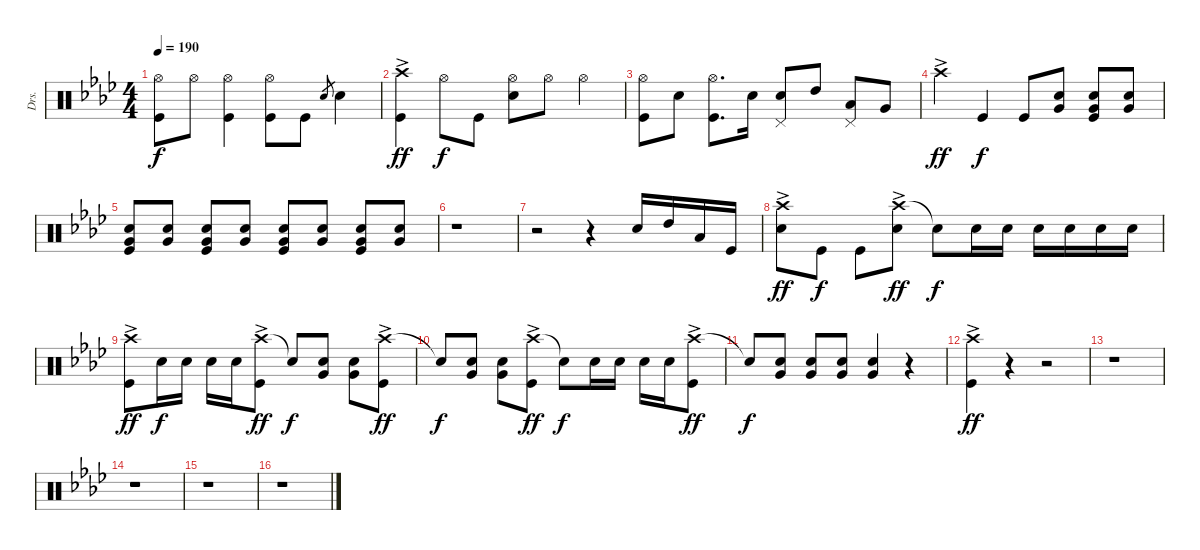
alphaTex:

\track ("Drs." "Drs.") {instrument percussion}
\staff {score}
\articulation defaults
\ts (4 4)
\tempo 190
\clef neutral
\ks ab
("Hi-Hat (open)" "Kick (hit)").8{dy f} "Hi-Hat (open)".8 ("Hi-Hat (open)" "Kick (hit)").4 ("Hi-Hat (open)" "Kick (hit)").8 "Kick (hit)".8 "Snare (hit) 2".8{gr} "Snare (hit) 2".4 |
("Crash high (hit)"{ac} "Kick (hit)").4{dy ff} "Hi-Hat (open)".8{dy f} "Kick (hit)".8 ("Hi-Hat (open)" "Snare (hit) 2").8 "Hi-Hat (open)".8 "Hi-Hat (open)".4 |
("Hi-Hat (open)" "Kick (hit)").8 "Snare (hit) 2".8 ("Hi-Hat (open)" "Kick (hit)").8{d} "Snare (hit) 2".16 ("Snare (hit) 2" "Pedal Hi-Hat (hit)").8 "High Tom (hit)".8 ("Low Tom (hit)" "Pedal Hi-Hat (hit)").8 "Very Low Tom (hit)".8 |
"Crash high (hit)"{ac}.4{dy ff} "Kick (hit)".4{dy f} "Kick (hit)".8 ("Snare (hit) 2" "Very Low Tom (hit)").8 ("Snare (hit) 2" "Very Low Tom (hit)" "Kick (hit)").8 ("Snare (hit) 2" "Very Low Tom (hit)").8 |
("Snare (hit) 2" "Very Low Tom (hit)" "Kick (hit)").8 ("Snare (hit) 2" "Very Low Tom (hit)").8 ("Snare (hit) 2" "Very Low Tom (hit)" "Kick (hit)").8 ("Snare (hit) 2" "Very Low Tom (hit)").8 ("Snare (hit) 2" "Very Low Tom (hit)" "Kick (hit)").8 ("Snare (hit) 2" "Very Low Tom (hit)").8 ("Snare (hit) 2" "Very Low Tom (hit)" "Kick (hit)").8 ("Snare (hit) 2" "Very Low Tom (hit)").8 |
r.1 |
r.2 r.4 "Snare (hit) 2".16 "High Tom (hit)".16 "Low Tom (hit)".16 "Kick (hit)".16 |
("Crash high (hit)"{ac} "Snare (hit) 2").8{dy ff} "Kick (hit)".8{dy f} "Kick (hit)".8 ("Crash high (hit)"{ac} "Snare (hit) 2").8{dy ff} "Snare (hit)"{t}.8{dy f} "Snare (hit) 2".16 "Snare (hit) 2".16 "Snare (hit) 2".16 "Snare (hit) 2".16 "Snare (hit) 2".16 "Snare (hit) 2".16 |
("Crash high (hit)"{ac} "Kick (hit)").8{dy ff} "Snare (hit) 2".16{dy f} "Snare (hit) 2".16 "Snare (hit) 2".16 "Snare (hit) 2".16 ("Crash high (hit)"{ac} "Kick (hit)").8{dy ff} "Snare (hit)"{t}.8{dy f} ("Snare (hit) 2" "Very Low Tom (hit)").8 ("Snare (hit) 2" "Very Low Tom (hit)").8 ("Crash high (hit)"{ac} "Kick (hit)").8{dy ff} |
"Snare (hit)"{t}.8{dy f} ("Snare (hit) 2" "Very Low Tom (hit)").8 ("Snare (hit) 2" "Very Low Tom (hit)").8 ("Crash high (hit)"{ac} "Kick (hit)").8{dy ff} "Snare (hit)"{t}.8{dy f} "Snare (hit) 2".16 "Snare (hit) 2".16 "Snare (hit) 2".16 "Snare (hit) 2".16 ("Crash high (hit)"{ac} "Kick (hit)").8{dy ff} |
"Snare (hit)"{t}.8{dy f} ("Snare (hit) 2" "Very Low Tom (hit)").8 ("Snare (hit) 2" "Very Low Tom (hit)").8 ("Snare (hit) 2" "Very Low Tom (hit)").8 ("Snare (hit) 2" "Very Low Tom (hit)").4 r.4 |
("Crash high (hit)"{ac} "Kick (hit)").4{dy ff} r.4 r.2 |
r.1 |
r.1 |
r.1 |
r.1
